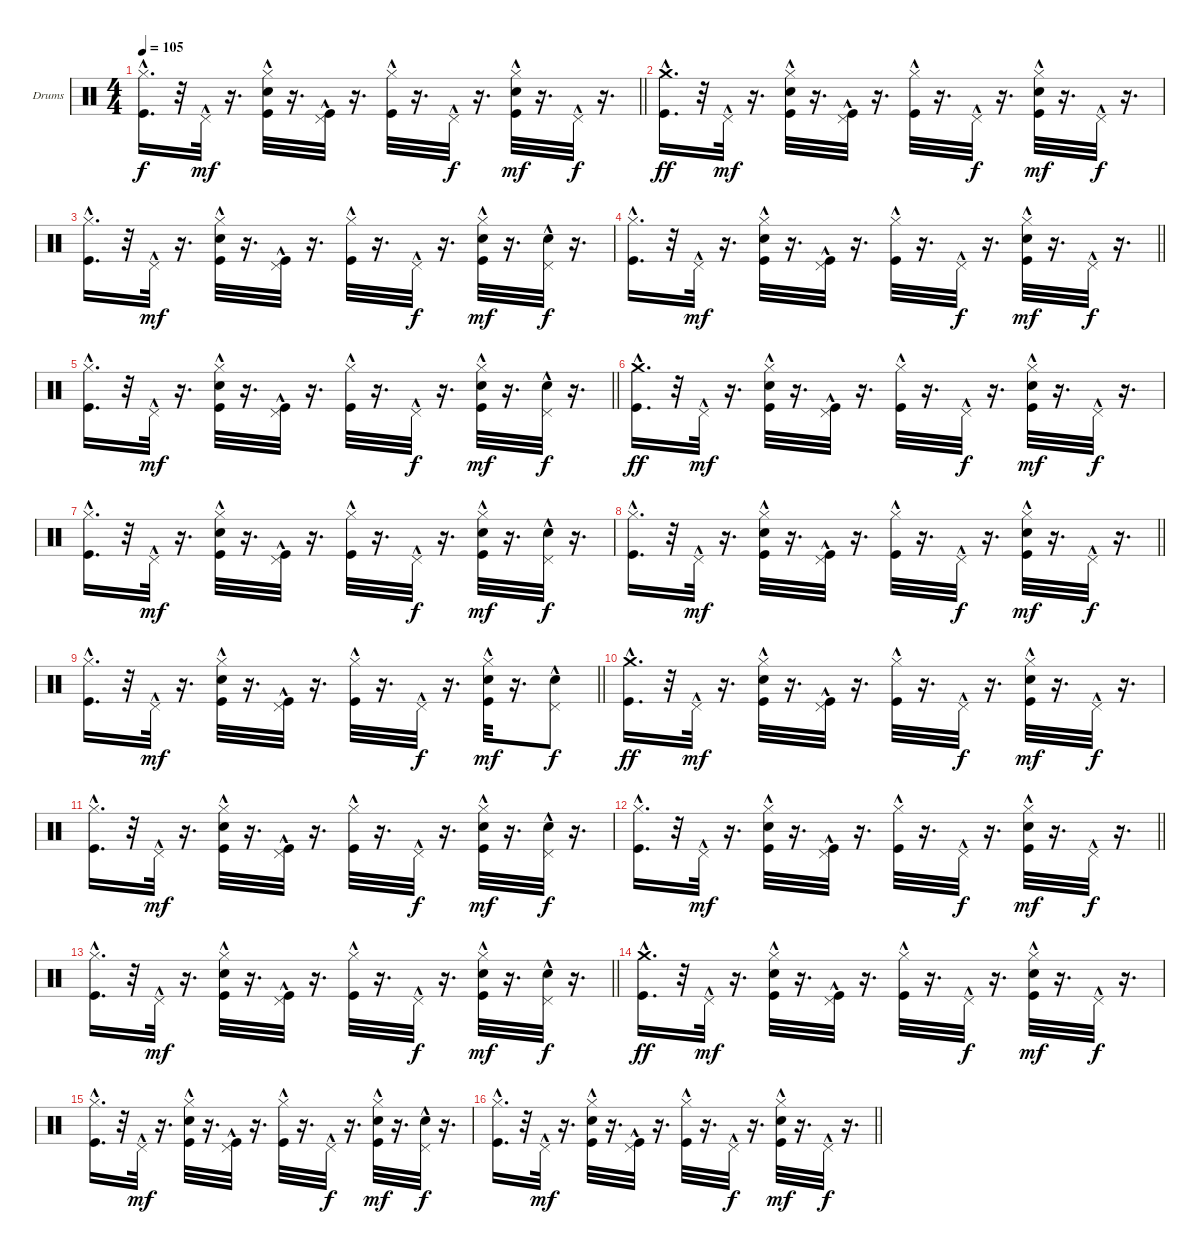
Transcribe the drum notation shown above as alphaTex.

\bracketExtendMode groupsimilarinstruments
\firstSystemTrackNameOrientation horizontal
\otherSystemsTrackNameOrientation horizontal
\track ("Барабаны Г.Гурьянов" "Drums") {instrument percussion}
\staff {score}
\articulation defaults
\ts (4 4)
\tempo 105
\clef neutral
\barLineRight lightlight
\ks c
("Hi-Hat (closed)"{hac} "Kick (hit)"{hac}).16{d dy f} r.32 "Pedal Hi-Hat (hit)"{hac}.32{dy mf} r.16{d} ("Hi-Hat (closed)"{hac} "Snare (hit) 2"{hac} "Kick (hit)"{hac}).32 r.16{d} ("Pedal Hi-Hat (hit)"{hac} "Kick (hit)"{hac}).32 r.16{d} ("Hi-Hat (closed)"{hac} "Kick (hit)"{hac}).32 r.16{d} "Pedal Hi-Hat (hit)"{hac}.32{dy f} r.16{d} ("Hi-Hat (closed)"{hac} "Snare (hit) 2"{hac} "Kick (hit)"{hac}).32{dy mf} r.16{d} "Pedal Hi-Hat (hit)"{hac}.32{dy f} r.16{d} |
("Crash medium (hit)"{hac} "Kick (hit)"{hac}).16{d dy ff} r.32 "Pedal Hi-Hat (hit)"{hac}.32{dy mf} r.16{d} ("Hi-Hat (closed)"{hac} "Snare (hit) 2"{hac} "Kick (hit)"{hac}).32 r.16{d} ("Pedal Hi-Hat (hit)"{hac} "Kick (hit)"{hac}).32 r.16{d} ("Hi-Hat (closed)"{hac} "Kick (hit)"{hac}).32 r.16{d} "Pedal Hi-Hat (hit)"{hac}.32{dy f} r.16{d} ("Hi-Hat (closed)"{hac} "Snare (hit) 2"{hac} "Kick (hit)"{hac}).32{dy mf} r.16{d} "Pedal Hi-Hat (hit)"{hac}.32{dy f} r.16{d} |
("Hi-Hat (closed)"{hac} "Kick (hit)"{hac}).16{d} r.32 "Pedal Hi-Hat (hit)"{hac}.32{dy mf} r.16{d} ("Hi-Hat (closed)"{hac} "Snare (hit) 2"{hac} "Kick (hit)"{hac}).32 r.16{d} ("Pedal Hi-Hat (hit)"{hac} "Kick (hit)"{hac}).32 r.16{d} ("Hi-Hat (closed)"{hac} "Kick (hit)"{hac}).32 r.16{d} "Pedal Hi-Hat (hit)"{hac}.32{dy f} r.16{d} ("Hi-Hat (closed)"{hac} "Snare (hit) 2"{hac} "Kick (hit)"{hac}).32{dy mf} r.16{d} ("Pedal Hi-Hat (hit)"{hac} "Snare (hit) 2"{hac}).32{dy f} r.16{d} |
\barLineRight lightlight
("Hi-Hat (closed)"{hac} "Kick (hit)"{hac}).16{d} r.32 "Pedal Hi-Hat (hit)"{hac}.32{dy mf} r.16{d} ("Hi-Hat (closed)"{hac} "Snare (hit) 2"{hac} "Kick (hit)"{hac}).32 r.16{d} ("Pedal Hi-Hat (hit)"{hac} "Kick (hit)"{hac}).32 r.16{d} ("Hi-Hat (closed)"{hac} "Kick (hit)"{hac}).32 r.16{d} "Pedal Hi-Hat (hit)"{hac}.32{dy f} r.16{d} ("Hi-Hat (closed)"{hac} "Snare (hit) 2"{hac} "Kick (hit)"{hac}).32{dy mf} r.16{d} "Pedal Hi-Hat (hit)"{hac}.32{dy f} r.16{d} |
\barLineRight lightlight
("Hi-Hat (closed)"{hac} "Kick (hit)"{hac}).16{d} r.32 "Pedal Hi-Hat (hit)"{hac}.32{dy mf} r.16{d} ("Hi-Hat (closed)"{hac} "Snare (hit) 2"{hac} "Kick (hit)"{hac}).32 r.16{d} ("Pedal Hi-Hat (hit)"{hac} "Kick (hit)"{hac}).32 r.16{d} ("Hi-Hat (closed)"{hac} "Kick (hit)"{hac}).32 r.16{d} "Pedal Hi-Hat (hit)"{hac}.32{dy f} r.16{d} ("Hi-Hat (closed)"{hac} "Snare (hit) 2"{hac} "Kick (hit)"{hac}).32{dy mf} r.16{d} ("Pedal Hi-Hat (hit)"{hac} "Snare (hit) 2"{hac}).32{dy f} r.16{d} |
("Crash medium (hit)"{hac} "Kick (hit)"{hac}).16{d dy ff} r.32 "Pedal Hi-Hat (hit)"{hac}.32{dy mf} r.16{d} ("Hi-Hat (closed)"{hac} "Snare (hit) 2"{hac} "Kick (hit)"{hac}).32 r.16{d} ("Pedal Hi-Hat (hit)"{hac} "Kick (hit)"{hac}).32 r.16{d} ("Hi-Hat (closed)"{hac} "Kick (hit)"{hac}).32 r.16{d} "Pedal Hi-Hat (hit)"{hac}.32{dy f} r.16{d} ("Hi-Hat (closed)"{hac} "Snare (hit) 2"{hac} "Kick (hit)"{hac}).32{dy mf} r.16{d} "Pedal Hi-Hat (hit)"{hac}.32{dy f} r.16{d} |
("Hi-Hat (closed)"{hac} "Kick (hit)"{hac}).16{d} r.32 "Pedal Hi-Hat (hit)"{hac}.32{dy mf} r.16{d} ("Hi-Hat (closed)"{hac} "Snare (hit) 2"{hac} "Kick (hit)"{hac}).32 r.16{d} ("Pedal Hi-Hat (hit)"{hac} "Kick (hit)"{hac}).32 r.16{d} ("Hi-Hat (closed)"{hac} "Kick (hit)"{hac}).32 r.16{d} "Pedal Hi-Hat (hit)"{hac}.32{dy f} r.16{d} ("Hi-Hat (closed)"{hac} "Snare (hit) 2"{hac} "Kick (hit)"{hac}).32{dy mf} r.16{d} ("Pedal Hi-Hat (hit)"{hac} "Snare (hit) 2"{hac}).32{dy f} r.16{d} |
\barLineRight lightlight
("Hi-Hat (closed)"{hac} "Kick (hit)"{hac}).16{d} r.32 "Pedal Hi-Hat (hit)"{hac}.32{dy mf} r.16{d} ("Hi-Hat (closed)"{hac} "Snare (hit) 2"{hac} "Kick (hit)"{hac}).32 r.16{d} ("Pedal Hi-Hat (hit)"{hac} "Kick (hit)"{hac}).32 r.16{d} ("Hi-Hat (closed)"{hac} "Kick (hit)"{hac}).32 r.16{d} "Pedal Hi-Hat (hit)"{hac}.32{dy f} r.16{d} ("Hi-Hat (closed)"{hac} "Snare (hit) 2"{hac} "Kick (hit)"{hac}).32{dy mf} r.16{d} "Pedal Hi-Hat (hit)"{hac}.32{dy f} r.16{d} |
\barLineRight lightlight
("Hi-Hat (closed)"{hac} "Kick (hit)"{hac}).16{d} r.32 "Pedal Hi-Hat (hit)"{hac}.32{dy mf} r.16{d} ("Hi-Hat (closed)"{hac} "Snare (hit) 2"{hac} "Kick (hit)"{hac}).32 r.16{d} ("Pedal Hi-Hat (hit)"{hac} "Kick (hit)"{hac}).32 r.16{d} ("Hi-Hat (closed)"{hac} "Kick (hit)"{hac}).32 r.16{d} "Pedal Hi-Hat (hit)"{hac}.32{dy f} r.16{d} ("Hi-Hat (closed)"{hac} "Snare (hit) 2"{hac} "Kick (hit)"{hac}).32{dy mf} r.16{d} ("Pedal Hi-Hat (hit)"{hac} "Snare (hit) 2"{hac}).8{dy f} |
("Crash medium (hit)"{hac} "Kick (hit)"{hac}).16{d dy ff} r.32 "Pedal Hi-Hat (hit)"{hac}.32{dy mf} r.16{d} ("Hi-Hat (closed)"{hac} "Snare (hit) 2"{hac} "Kick (hit)"{hac}).32 r.16{d} ("Pedal Hi-Hat (hit)"{hac} "Kick (hit)"{hac}).32 r.16{d} ("Hi-Hat (closed)"{hac} "Kick (hit)"{hac}).32 r.16{d} "Pedal Hi-Hat (hit)"{hac}.32{dy f} r.16{d} ("Hi-Hat (closed)"{hac} "Snare (hit) 2"{hac} "Kick (hit)"{hac}).32{dy mf} r.16{d} "Pedal Hi-Hat (hit)"{hac}.32{dy f} r.16{d} |
("Hi-Hat (closed)"{hac} "Kick (hit)"{hac}).16{d} r.32 "Pedal Hi-Hat (hit)"{hac}.32{dy mf} r.16{d} ("Hi-Hat (closed)"{hac} "Snare (hit) 2"{hac} "Kick (hit)"{hac}).32 r.16{d} ("Pedal Hi-Hat (hit)"{hac} "Kick (hit)"{hac}).32 r.16{d} ("Hi-Hat (closed)"{hac} "Kick (hit)"{hac}).32 r.16{d} "Pedal Hi-Hat (hit)"{hac}.32{dy f} r.16{d} ("Hi-Hat (closed)"{hac} "Snare (hit) 2"{hac} "Kick (hit)"{hac}).32{dy mf} r.16{d} ("Pedal Hi-Hat (hit)"{hac} "Snare (hit) 2"{hac}).32{dy f} r.16{d} |
\barLineRight lightlight
("Hi-Hat (closed)"{hac} "Kick (hit)"{hac}).16{d} r.32 "Pedal Hi-Hat (hit)"{hac}.32{dy mf} r.16{d} ("Hi-Hat (closed)"{hac} "Snare (hit) 2"{hac} "Kick (hit)"{hac}).32 r.16{d} ("Pedal Hi-Hat (hit)"{hac} "Kick (hit)"{hac}).32 r.16{d} ("Hi-Hat (closed)"{hac} "Kick (hit)"{hac}).32 r.16{d} "Pedal Hi-Hat (hit)"{hac}.32{dy f} r.16{d} ("Hi-Hat (closed)"{hac} "Snare (hit) 2"{hac} "Kick (hit)"{hac}).32{dy mf} r.16{d} "Pedal Hi-Hat (hit)"{hac}.32{dy f} r.16{d} |
\barLineRight lightlight
("Hi-Hat (closed)"{hac} "Kick (hit)"{hac}).16{d} r.32 "Pedal Hi-Hat (hit)"{hac}.32{dy mf} r.16{d} ("Hi-Hat (closed)"{hac} "Snare (hit) 2"{hac} "Kick (hit)"{hac}).32 r.16{d} ("Pedal Hi-Hat (hit)"{hac} "Kick (hit)"{hac}).32 r.16{d} ("Hi-Hat (closed)"{hac} "Kick (hit)"{hac}).32 r.16{d} "Pedal Hi-Hat (hit)"{hac}.32{dy f} r.16{d} ("Hi-Hat (closed)"{hac} "Snare (hit) 2"{hac} "Kick (hit)"{hac}).32{dy mf} r.16{d} ("Pedal Hi-Hat (hit)"{hac} "Snare (hit) 2"{hac}).32{dy f} r.16{d} |
("Crash medium (hit)"{hac} "Kick (hit)"{hac}).16{d dy ff} r.32 "Pedal Hi-Hat (hit)"{hac}.32{dy mf} r.16{d} ("Hi-Hat (closed)"{hac} "Snare (hit) 2"{hac} "Kick (hit)"{hac}).32 r.16{d} ("Pedal Hi-Hat (hit)"{hac} "Kick (hit)"{hac}).32 r.16{d} ("Hi-Hat (closed)"{hac} "Kick (hit)"{hac}).32 r.16{d} "Pedal Hi-Hat (hit)"{hac}.32{dy f} r.16{d} ("Hi-Hat (closed)"{hac} "Snare (hit) 2"{hac} "Kick (hit)"{hac}).32{dy mf} r.16{d} "Pedal Hi-Hat (hit)"{hac}.32{dy f} r.16{d} |
("Hi-Hat (closed)"{hac} "Kick (hit)"{hac}).16{d} r.32 "Pedal Hi-Hat (hit)"{hac}.32{dy mf} r.16{d} ("Hi-Hat (closed)"{hac} "Snare (hit) 2"{hac} "Kick (hit)"{hac}).32 r.16{d} ("Pedal Hi-Hat (hit)"{hac} "Kick (hit)"{hac}).32 r.16{d} ("Hi-Hat (closed)"{hac} "Kick (hit)"{hac}).32 r.16{d} "Pedal Hi-Hat (hit)"{hac}.32{dy f} r.16{d} ("Hi-Hat (closed)"{hac} "Snare (hit) 2"{hac} "Kick (hit)"{hac}).32{dy mf} r.16{d} ("Pedal Hi-Hat (hit)"{hac} "Snare (hit) 2"{hac}).32{dy f} r.16{d} |
\barLineRight lightlight
("Hi-Hat (closed)"{hac} "Kick (hit)"{hac}).16{d} r.32 "Pedal Hi-Hat (hit)"{hac}.32{dy mf} r.16{d} ("Hi-Hat (closed)"{hac} "Snare (hit) 2"{hac} "Kick (hit)"{hac}).32 r.16{d} ("Pedal Hi-Hat (hit)"{hac} "Kick (hit)"{hac}).32 r.16{d} ("Hi-Hat (closed)"{hac} "Kick (hit)"{hac}).32 r.16{d} "Pedal Hi-Hat (hit)"{hac}.32{dy f} r.16{d} ("Hi-Hat (closed)"{hac} "Snare (hit) 2"{hac} "Kick (hit)"{hac}).32{dy mf} r.16{d} "Pedal Hi-Hat (hit)"{hac}.32{dy f} r.16{d}
